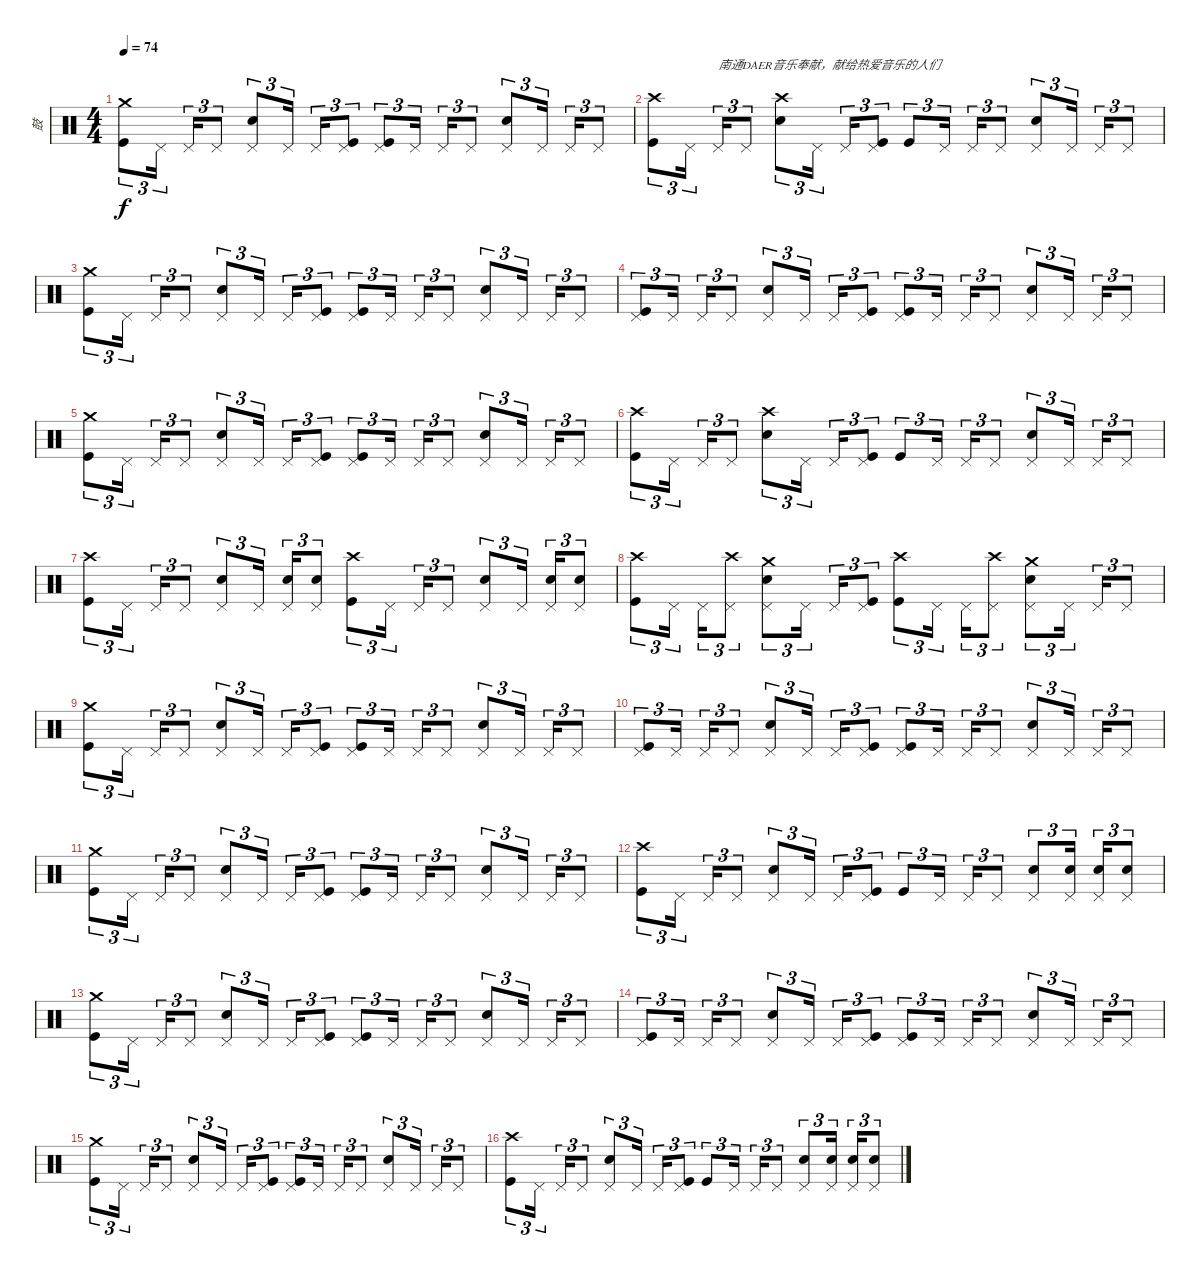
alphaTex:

\track ("鼓" "鼓") {instrument percussion}
\staff {score}
\articulation defaults
\ts (4 4)
\tempo 74
\clef neutral
\ks c
("Crash medium (hit)" "Kick (hit)").8{tu (3 2) dy f} "Pedal Hi-Hat (hit)".16{tu (3 2)} "Pedal Hi-Hat (hit)".16{tu (3 2)} "Pedal Hi-Hat (hit)".8{tu (3 2)} ("Pedal Hi-Hat (hit)" "Electric Snare (hit)").8{tu (3 2)} "Pedal Hi-Hat (hit)".16{tu (3 2)} "Pedal Hi-Hat (hit)".16{tu (3 2)} ("Pedal Hi-Hat (hit)" "Kick (hit)").8{tu (3 2)} ("Pedal Hi-Hat (hit)" "Kick (hit)").8{tu (3 2)} "Pedal Hi-Hat (hit)".16{tu (3 2)} "Pedal Hi-Hat (hit)".16{tu (3 2)} "Pedal Hi-Hat (hit)".8{tu (3 2)} ("Pedal Hi-Hat (hit)" "Electric Snare (hit)").8{tu (3 2)} "Pedal Hi-Hat (hit)".16{tu (3 2)} "Pedal Hi-Hat (hit)".16{tu (3 2)} "Pedal Hi-Hat (hit)".8{tu (3 2)} |
("Crash high (hit)" "Kick (hit)").8{tu (3 2)} "Pedal Hi-Hat (hit)".16{tu (3 2)} "Pedal Hi-Hat (hit)".16{tu (3 2) txt "南通DAER音乐奉献，献给热爱音乐的人们"} "Pedal Hi-Hat (hit)".8{tu (3 2)} ("Crash high (hit)" "Electric Snare (hit)").8{tu (3 2)} "Pedal Hi-Hat (hit)".16{tu (3 2)} "Pedal Hi-Hat (hit)".16{tu (3 2)} ("Pedal Hi-Hat (hit)" "Kick (hit)").8{tu (3 2)} "Kick (hit)".8{tu (3 2)} "Pedal Hi-Hat (hit)".16{tu (3 2)} "Pedal Hi-Hat (hit)".16{tu (3 2)} "Pedal Hi-Hat (hit)".8{tu (3 2)} ("Pedal Hi-Hat (hit)" "Electric Snare (hit)").8{tu (3 2)} "Pedal Hi-Hat (hit)".16{tu (3 2)} "Pedal Hi-Hat (hit)".16{tu (3 2)} "Pedal Hi-Hat (hit)".8{tu (3 2)} |
("Crash medium (hit)" "Kick (hit)").8{tu (3 2)} "Pedal Hi-Hat (hit)".16{tu (3 2)} "Pedal Hi-Hat (hit)".16{tu (3 2)} "Pedal Hi-Hat (hit)".8{tu (3 2)} ("Pedal Hi-Hat (hit)" "Electric Snare (hit)").8{tu (3 2)} "Pedal Hi-Hat (hit)".16{tu (3 2)} "Pedal Hi-Hat (hit)".16{tu (3 2)} ("Pedal Hi-Hat (hit)" "Kick (hit)").8{tu (3 2)} ("Pedal Hi-Hat (hit)" "Kick (hit)").8{tu (3 2)} "Pedal Hi-Hat (hit)".16{tu (3 2)} "Pedal Hi-Hat (hit)".16{tu (3 2)} "Pedal Hi-Hat (hit)".8{tu (3 2)} ("Pedal Hi-Hat (hit)" "Electric Snare (hit)").8{tu (3 2)} "Pedal Hi-Hat (hit)".16{tu (3 2)} "Pedal Hi-Hat (hit)".16{tu (3 2)} "Pedal Hi-Hat (hit)".8{tu (3 2)} |
("Pedal Hi-Hat (hit)" "Kick (hit)").8{tu (3 2)} "Pedal Hi-Hat (hit)".16{tu (3 2)} "Pedal Hi-Hat (hit)".16{tu (3 2)} "Pedal Hi-Hat (hit)".8{tu (3 2)} ("Pedal Hi-Hat (hit)" "Electric Snare (hit)").8{tu (3 2)} "Pedal Hi-Hat (hit)".16{tu (3 2)} "Pedal Hi-Hat (hit)".16{tu (3 2)} ("Pedal Hi-Hat (hit)" "Kick (hit)").8{tu (3 2)} ("Pedal Hi-Hat (hit)" "Kick (hit)").8{tu (3 2)} "Pedal Hi-Hat (hit)".16{tu (3 2)} "Pedal Hi-Hat (hit)".16{tu (3 2)} "Pedal Hi-Hat (hit)".8{tu (3 2)} ("Pedal Hi-Hat (hit)" "Electric Snare (hit)").8{tu (3 2)} "Pedal Hi-Hat (hit)".16{tu (3 2)} "Pedal Hi-Hat (hit)".16{tu (3 2)} "Pedal Hi-Hat (hit)".8{tu (3 2)} |
("Crash medium (hit)" "Kick (hit)").8{tu (3 2)} "Pedal Hi-Hat (hit)".16{tu (3 2)} "Pedal Hi-Hat (hit)".16{tu (3 2)} "Pedal Hi-Hat (hit)".8{tu (3 2)} ("Pedal Hi-Hat (hit)" "Electric Snare (hit)").8{tu (3 2)} "Pedal Hi-Hat (hit)".16{tu (3 2)} "Pedal Hi-Hat (hit)".16{tu (3 2)} ("Pedal Hi-Hat (hit)" "Kick (hit)").8{tu (3 2)} ("Pedal Hi-Hat (hit)" "Kick (hit)").8{tu (3 2)} "Pedal Hi-Hat (hit)".16{tu (3 2)} "Pedal Hi-Hat (hit)".16{tu (3 2)} "Pedal Hi-Hat (hit)".8{tu (3 2)} ("Pedal Hi-Hat (hit)" "Electric Snare (hit)").8{tu (3 2)} "Pedal Hi-Hat (hit)".16{tu (3 2)} "Pedal Hi-Hat (hit)".16{tu (3 2)} "Pedal Hi-Hat (hit)".8{tu (3 2)} |
("Crash high (hit)" "Kick (hit)").8{tu (3 2)} "Pedal Hi-Hat (hit)".16{tu (3 2)} "Pedal Hi-Hat (hit)".16{tu (3 2)} "Pedal Hi-Hat (hit)".8{tu (3 2)} ("Crash high (hit)" "Electric Snare (hit)").8{tu (3 2)} "Pedal Hi-Hat (hit)".16{tu (3 2)} "Pedal Hi-Hat (hit)".16{tu (3 2)} ("Pedal Hi-Hat (hit)" "Kick (hit)").8{tu (3 2)} "Kick (hit)".8{tu (3 2)} "Pedal Hi-Hat (hit)".16{tu (3 2)} "Pedal Hi-Hat (hit)".16{tu (3 2)} "Pedal Hi-Hat (hit)".8{tu (3 2)} ("Pedal Hi-Hat (hit)" "Electric Snare (hit)").8{tu (3 2)} "Pedal Hi-Hat (hit)".16{tu (3 2)} "Pedal Hi-Hat (hit)".16{tu (3 2)} "Pedal Hi-Hat (hit)".8{tu (3 2)} |
("Crash high (hit)" "Kick (hit)").8{tu (3 2)} "Pedal Hi-Hat (hit)".16{tu (3 2)} "Pedal Hi-Hat (hit)".16{tu (3 2)} "Pedal Hi-Hat (hit)".8{tu (3 2)} ("Pedal Hi-Hat (hit)" "Electric Snare (hit)").8{tu (3 2)} "Pedal Hi-Hat (hit)".16{tu (3 2)} ("Pedal Hi-Hat (hit)" "Electric Snare (hit)").16{tu (3 2)} ("Pedal Hi-Hat (hit)" "Electric Snare (hit)").8{tu (3 2)} ("Crash high (hit)" "Kick (hit)").8{tu (3 2)} "Pedal Hi-Hat (hit)".16{tu (3 2)} "Pedal Hi-Hat (hit)".16{tu (3 2)} "Pedal Hi-Hat (hit)".8{tu (3 2)} ("Pedal Hi-Hat (hit)" "Electric Snare (hit)").8{tu (3 2)} "Pedal Hi-Hat (hit)".16{tu (3 2)} ("Pedal Hi-Hat (hit)" "Electric Snare (hit)").16{tu (3 2)} ("Pedal Hi-Hat (hit)" "Electric Snare (hit)").8{tu (3 2)} |
("Crash high (hit)" "Kick (hit)").8{tu (3 2)} "Pedal Hi-Hat (hit)".16{tu (3 2)} "Pedal Hi-Hat (hit)".16{tu (3 2)} ("Crash high (hit)" "Pedal Hi-Hat (hit)").8{tu (3 2)} ("Crash medium (hit)" "Pedal Hi-Hat (hit)" "Electric Snare (hit)").8{tu (3 2)} "Pedal Hi-Hat (hit)".16{tu (3 2)} "Pedal Hi-Hat (hit)".16{tu (3 2)} ("Pedal Hi-Hat (hit)" "Kick (hit)").8{tu (3 2)} ("Crash high (hit)" "Kick (hit)").8{tu (3 2)} "Pedal Hi-Hat (hit)".16{tu (3 2)} "Pedal Hi-Hat (hit)".16{tu (3 2)} ("Crash high (hit)" "Pedal Hi-Hat (hit)").8{tu (3 2)} ("Crash medium (hit)" "Pedal Hi-Hat (hit)" "Electric Snare (hit)").8{tu (3 2)} "Pedal Hi-Hat (hit)".16{tu (3 2)} "Pedal Hi-Hat (hit)".16{tu (3 2)} "Pedal Hi-Hat (hit)".8{tu (3 2)} |
("Crash medium (hit)" "Kick (hit)").8{tu (3 2)} "Pedal Hi-Hat (hit)".16{tu (3 2)} "Pedal Hi-Hat (hit)".16{tu (3 2)} "Pedal Hi-Hat (hit)".8{tu (3 2)} ("Pedal Hi-Hat (hit)" "Electric Snare (hit)").8{tu (3 2)} "Pedal Hi-Hat (hit)".16{tu (3 2)} "Pedal Hi-Hat (hit)".16{tu (3 2)} ("Pedal Hi-Hat (hit)" "Kick (hit)").8{tu (3 2)} ("Pedal Hi-Hat (hit)" "Kick (hit)").8{tu (3 2)} "Pedal Hi-Hat (hit)".16{tu (3 2)} "Pedal Hi-Hat (hit)".16{tu (3 2)} "Pedal Hi-Hat (hit)".8{tu (3 2)} ("Pedal Hi-Hat (hit)" "Electric Snare (hit)").8{tu (3 2)} "Pedal Hi-Hat (hit)".16{tu (3 2)} "Pedal Hi-Hat (hit)".16{tu (3 2)} "Pedal Hi-Hat (hit)".8{tu (3 2)} |
("Pedal Hi-Hat (hit)" "Kick (hit)").8{tu (3 2)} "Pedal Hi-Hat (hit)".16{tu (3 2)} "Pedal Hi-Hat (hit)".16{tu (3 2)} "Pedal Hi-Hat (hit)".8{tu (3 2)} ("Pedal Hi-Hat (hit)" "Electric Snare (hit)").8{tu (3 2)} "Pedal Hi-Hat (hit)".16{tu (3 2)} "Pedal Hi-Hat (hit)".16{tu (3 2)} ("Pedal Hi-Hat (hit)" "Kick (hit)").8{tu (3 2)} ("Pedal Hi-Hat (hit)" "Kick (hit)").8{tu (3 2)} "Pedal Hi-Hat (hit)".16{tu (3 2)} "Pedal Hi-Hat (hit)".16{tu (3 2)} "Pedal Hi-Hat (hit)".8{tu (3 2)} ("Pedal Hi-Hat (hit)" "Electric Snare (hit)").8{tu (3 2)} "Pedal Hi-Hat (hit)".16{tu (3 2)} "Pedal Hi-Hat (hit)".16{tu (3 2)} "Pedal Hi-Hat (hit)".8{tu (3 2)} |
("Crash medium (hit)" "Kick (hit)").8{tu (3 2)} "Pedal Hi-Hat (hit)".16{tu (3 2)} "Pedal Hi-Hat (hit)".16{tu (3 2)} "Pedal Hi-Hat (hit)".8{tu (3 2)} ("Pedal Hi-Hat (hit)" "Electric Snare (hit)").8{tu (3 2)} "Pedal Hi-Hat (hit)".16{tu (3 2)} "Pedal Hi-Hat (hit)".16{tu (3 2)} ("Pedal Hi-Hat (hit)" "Kick (hit)").8{tu (3 2)} ("Pedal Hi-Hat (hit)" "Kick (hit)").8{tu (3 2)} "Pedal Hi-Hat (hit)".16{tu (3 2)} "Pedal Hi-Hat (hit)".16{tu (3 2)} "Pedal Hi-Hat (hit)".8{tu (3 2)} ("Pedal Hi-Hat (hit)" "Electric Snare (hit)").8{tu (3 2)} "Pedal Hi-Hat (hit)".16{tu (3 2)} "Pedal Hi-Hat (hit)".16{tu (3 2)} "Pedal Hi-Hat (hit)".8{tu (3 2)} |
("Crash high (hit)" "Kick (hit)").8{tu (3 2)} "Pedal Hi-Hat (hit)".16{tu (3 2)} "Pedal Hi-Hat (hit)".16{tu (3 2)} "Pedal Hi-Hat (hit)".8{tu (3 2)} ("Pedal Hi-Hat (hit)" "Electric Snare (hit)").8{tu (3 2)} "Pedal Hi-Hat (hit)".16{tu (3 2)} "Pedal Hi-Hat (hit)".16{tu (3 2)} ("Pedal Hi-Hat (hit)" "Kick (hit)").8{tu (3 2)} "Kick (hit)".8{tu (3 2)} "Pedal Hi-Hat (hit)".16{tu (3 2)} "Pedal Hi-Hat (hit)".16{tu (3 2)} "Pedal Hi-Hat (hit)".8{tu (3 2)} ("Pedal Hi-Hat (hit)" "Electric Snare (hit)").8{tu (3 2)} ("Pedal Hi-Hat (hit)" "Electric Snare (hit)").16{tu (3 2)} ("Pedal Hi-Hat (hit)" "Electric Snare (hit)").16{tu (3 2)} ("Pedal Hi-Hat (hit)" "Electric Snare (hit)").8{tu (3 2)} |
("Crash medium (hit)" "Kick (hit)").8{tu (3 2)} "Pedal Hi-Hat (hit)".16{tu (3 2)} "Pedal Hi-Hat (hit)".16{tu (3 2)} "Pedal Hi-Hat (hit)".8{tu (3 2)} ("Pedal Hi-Hat (hit)" "Electric Snare (hit)").8{tu (3 2)} "Pedal Hi-Hat (hit)".16{tu (3 2)} "Pedal Hi-Hat (hit)".16{tu (3 2)} ("Pedal Hi-Hat (hit)" "Kick (hit)").8{tu (3 2)} ("Pedal Hi-Hat (hit)" "Kick (hit)").8{tu (3 2)} "Pedal Hi-Hat (hit)".16{tu (3 2)} "Pedal Hi-Hat (hit)".16{tu (3 2)} "Pedal Hi-Hat (hit)".8{tu (3 2)} ("Pedal Hi-Hat (hit)" "Electric Snare (hit)").8{tu (3 2)} "Pedal Hi-Hat (hit)".16{tu (3 2)} "Pedal Hi-Hat (hit)".16{tu (3 2)} "Pedal Hi-Hat (hit)".8{tu (3 2)} |
("Pedal Hi-Hat (hit)" "Kick (hit)").8{tu (3 2)} "Pedal Hi-Hat (hit)".16{tu (3 2)} "Pedal Hi-Hat (hit)".16{tu (3 2)} "Pedal Hi-Hat (hit)".8{tu (3 2)} ("Pedal Hi-Hat (hit)" "Electric Snare (hit)").8{tu (3 2)} "Pedal Hi-Hat (hit)".16{tu (3 2)} "Pedal Hi-Hat (hit)".16{tu (3 2)} ("Pedal Hi-Hat (hit)" "Kick (hit)").8{tu (3 2)} ("Pedal Hi-Hat (hit)" "Kick (hit)").8{tu (3 2)} "Pedal Hi-Hat (hit)".16{tu (3 2)} "Pedal Hi-Hat (hit)".16{tu (3 2)} "Pedal Hi-Hat (hit)".8{tu (3 2)} ("Pedal Hi-Hat (hit)" "Electric Snare (hit)").8{tu (3 2)} "Pedal Hi-Hat (hit)".16{tu (3 2)} "Pedal Hi-Hat (hit)".16{tu (3 2)} "Pedal Hi-Hat (hit)".8{tu (3 2)} |
("Crash medium (hit)" "Kick (hit)").8{tu (3 2)} "Pedal Hi-Hat (hit)".16{tu (3 2)} "Pedal Hi-Hat (hit)".16{tu (3 2)} "Pedal Hi-Hat (hit)".8{tu (3 2)} ("Pedal Hi-Hat (hit)" "Electric Snare (hit)").8{tu (3 2)} "Pedal Hi-Hat (hit)".16{tu (3 2)} "Pedal Hi-Hat (hit)".16{tu (3 2)} ("Pedal Hi-Hat (hit)" "Kick (hit)").8{tu (3 2)} ("Pedal Hi-Hat (hit)" "Kick (hit)").8{tu (3 2)} "Pedal Hi-Hat (hit)".16{tu (3 2)} "Pedal Hi-Hat (hit)".16{tu (3 2)} "Pedal Hi-Hat (hit)".8{tu (3 2)} ("Pedal Hi-Hat (hit)" "Electric Snare (hit)").8{tu (3 2)} "Pedal Hi-Hat (hit)".16{tu (3 2)} "Pedal Hi-Hat (hit)".16{tu (3 2)} "Pedal Hi-Hat (hit)".8{tu (3 2)} |
("Crash high (hit)" "Kick (hit)").8{tu (3 2)} "Pedal Hi-Hat (hit)".16{tu (3 2)} "Pedal Hi-Hat (hit)".16{tu (3 2)} "Pedal Hi-Hat (hit)".8{tu (3 2)} ("Pedal Hi-Hat (hit)" "Electric Snare (hit)").8{tu (3 2)} "Pedal Hi-Hat (hit)".16{tu (3 2)} "Pedal Hi-Hat (hit)".16{tu (3 2)} ("Pedal Hi-Hat (hit)" "Kick (hit)").8{tu (3 2)} "Kick (hit)".8{tu (3 2)} "Pedal Hi-Hat (hit)".16{tu (3 2)} "Pedal Hi-Hat (hit)".16{tu (3 2)} "Pedal Hi-Hat (hit)".8{tu (3 2)} ("Pedal Hi-Hat (hit)" "Electric Snare (hit)").8{tu (3 2)} ("Pedal Hi-Hat (hit)" "Electric Snare (hit)").16{tu (3 2)} ("Pedal Hi-Hat (hit)" "Electric Snare (hit)").16{tu (3 2)} ("Pedal Hi-Hat (hit)" "Electric Snare (hit)").8{tu (3 2)}
